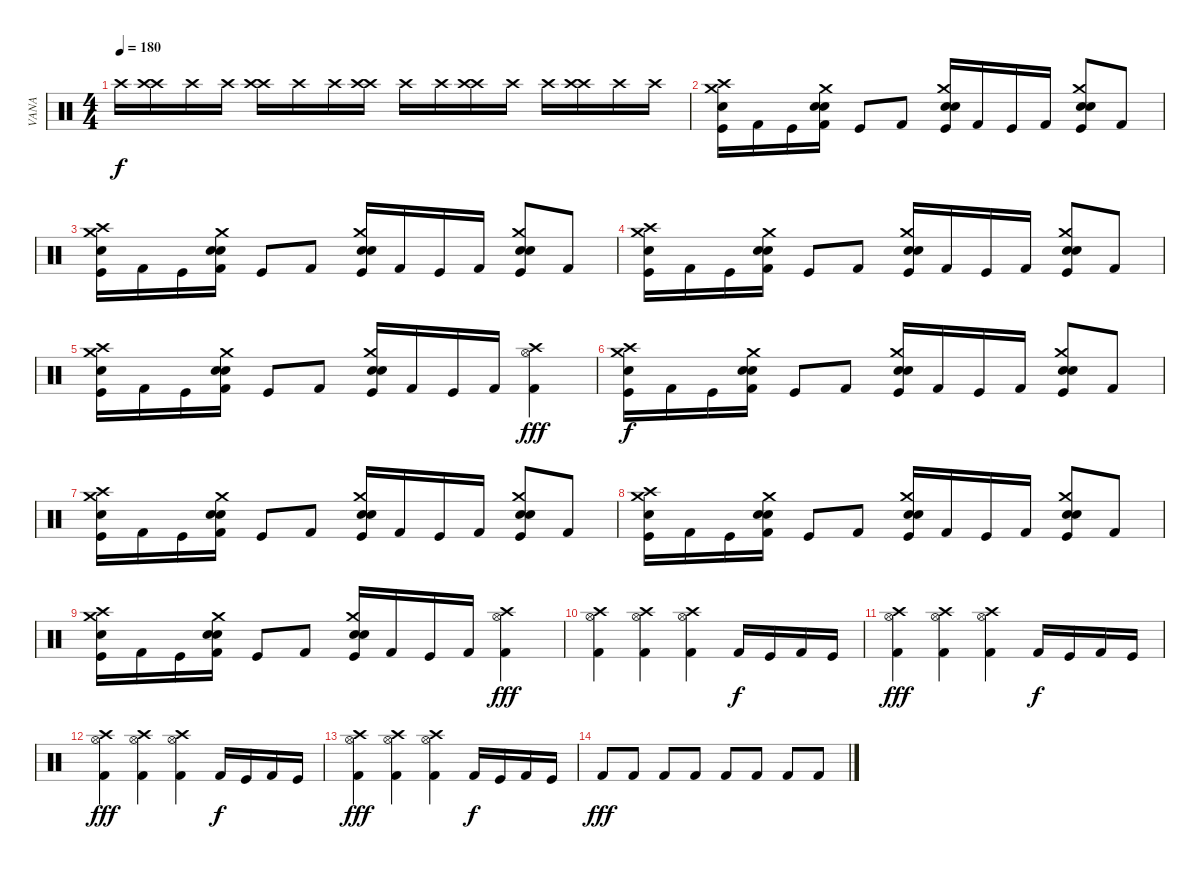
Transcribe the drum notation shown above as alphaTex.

\track ("VANA" "VANA") {instrument percussion}
\staff {score}
\articulation defaults
\ts (4 4)
\tempo 180
\clef neutral
\ks c "Crash high (hit)".16{dy f}
("Crash high (hit)" "Crash high (hit)").16 "Crash high (hit)".16 "Crash high (hit)".16 ("Crash high (hit)" "Crash high (hit)").16 "Crash high (hit)".16 "Crash high (hit)".16 ("Crash high (hit)" "Crash high (hit)").16 "Crash high (hit)".16 "Crash high (hit)".16 ("Crash high (hit)" "Crash high (hit)").16 "Crash high (hit)".16 "Crash high (hit)".16 ("Crash high (hit)" "Crash high (hit)").16 "Crash high (hit)".16 "Crash high (hit)".16 |
("Snare (hit) 2" "Crash medium (hit)" "Crash high (hit)" "Kick (hit)").16 "Kick (hit) 2".16 "Kick (hit)".16 ("Snare (hit) 2" "Crash medium (hit)" "Electric Snare (hit)" "Kick (hit) 2").16 "Kick (hit)".8 "Kick (hit) 2".8 ("Snare (hit) 2" "Crash medium (hit)" "Electric Snare (hit)" "Kick (hit)").16 "Kick (hit) 2".16 "Kick (hit)".16 "Kick (hit) 2".16 ("Snare (hit) 2" "Crash medium (hit)" "Electric Snare (hit)" "Kick (hit)").8 "Kick (hit) 2".8 |
("Snare (hit) 2" "Crash medium (hit)" "Crash high (hit)" "Kick (hit)").16 "Kick (hit) 2".16 "Kick (hit)".16 ("Snare (hit) 2" "Crash medium (hit)" "Electric Snare (hit)" "Kick (hit) 2").16 "Kick (hit)".8 "Kick (hit) 2".8 ("Snare (hit) 2" "Crash medium (hit)" "Electric Snare (hit)" "Kick (hit)").16 "Kick (hit) 2".16 "Kick (hit)".16 "Kick (hit) 2".16 ("Snare (hit) 2" "Crash medium (hit)" "Electric Snare (hit)" "Kick (hit)").8 "Kick (hit) 2".8 |
("Snare (hit) 2" "Crash medium (hit)" "Crash high (hit)" "Kick (hit)").16 "Kick (hit) 2".16 "Kick (hit)".16 ("Snare (hit) 2" "Crash medium (hit)" "Electric Snare (hit)" "Kick (hit) 2").16 "Kick (hit)".8 "Kick (hit) 2".8 ("Snare (hit) 2" "Crash medium (hit)" "Electric Snare (hit)" "Kick (hit)").16 "Kick (hit) 2".16 "Kick (hit)".16 "Kick (hit) 2".16 ("Snare (hit) 2" "Crash medium (hit)" "Electric Snare (hit)" "Kick (hit)").8 "Kick (hit) 2".8 |
("Snare (hit) 2" "Crash medium (hit)" "Crash high (hit)" "Kick (hit)").16 "Kick (hit) 2".16 "Kick (hit)".16 ("Snare (hit) 2" "Crash medium (hit)" "Electric Snare (hit)" "Kick (hit) 2").16 "Kick (hit)".8 "Kick (hit) 2".8 ("Snare (hit) 2" "Crash medium (hit)" "Electric Snare (hit)" "Kick (hit)").16 "Kick (hit) 2".16 "Kick (hit)".16 "Kick (hit) 2".16 ("Hi-Hat (open)" "Crash high (hit)" "Kick (hit) 2").4{dy fff} |
("Snare (hit) 2" "Crash medium (hit)" "Crash high (hit)" "Kick (hit)").16{dy f} "Kick (hit) 2".16 "Kick (hit)".16 ("Snare (hit) 2" "Crash medium (hit)" "Electric Snare (hit)" "Kick (hit) 2").16 "Kick (hit)".8 "Kick (hit) 2".8 ("Snare (hit) 2" "Crash medium (hit)" "Electric Snare (hit)" "Kick (hit)").16 "Kick (hit) 2".16 "Kick (hit)".16 "Kick (hit) 2".16 ("Snare (hit) 2" "Crash medium (hit)" "Electric Snare (hit)" "Kick (hit)").8 "Kick (hit) 2".8 |
("Snare (hit) 2" "Crash medium (hit)" "Crash high (hit)" "Kick (hit)").16 "Kick (hit) 2".16 "Kick (hit)".16 ("Snare (hit) 2" "Crash medium (hit)" "Electric Snare (hit)" "Kick (hit) 2").16 "Kick (hit)".8 "Kick (hit) 2".8 ("Snare (hit) 2" "Crash medium (hit)" "Electric Snare (hit)" "Kick (hit)").16 "Kick (hit) 2".16 "Kick (hit)".16 "Kick (hit) 2".16 ("Snare (hit) 2" "Crash medium (hit)" "Electric Snare (hit)" "Kick (hit)").8 "Kick (hit) 2".8 |
("Snare (hit) 2" "Crash medium (hit)" "Crash high (hit)" "Kick (hit)").16 "Kick (hit) 2".16 "Kick (hit)".16 ("Snare (hit) 2" "Crash medium (hit)" "Electric Snare (hit)" "Kick (hit) 2").16 "Kick (hit)".8 "Kick (hit) 2".8 ("Snare (hit) 2" "Crash medium (hit)" "Electric Snare (hit)" "Kick (hit)").16 "Kick (hit) 2".16 "Kick (hit)".16 "Kick (hit) 2".16 ("Snare (hit) 2" "Crash medium (hit)" "Electric Snare (hit)" "Kick (hit)").8 "Kick (hit) 2".8 |
("Snare (hit) 2" "Crash medium (hit)" "Crash high (hit)" "Kick (hit)").16 "Kick (hit) 2".16 "Kick (hit)".16 ("Snare (hit) 2" "Crash medium (hit)" "Electric Snare (hit)" "Kick (hit) 2").16 "Kick (hit)".8 "Kick (hit) 2".8 ("Snare (hit) 2" "Crash medium (hit)" "Electric Snare (hit)" "Kick (hit)").16 "Kick (hit) 2".16 "Kick (hit)".16 "Kick (hit) 2".16 ("Hi-Hat (open)" "Crash high (hit)" "Kick (hit) 2").4{dy fff} |
("Hi-Hat (open)" "Crash high (hit)" "Kick (hit) 2").4 ("Hi-Hat (open)" "Crash high (hit)" "Kick (hit) 2").4 ("Hi-Hat (open)" "Crash high (hit)" "Kick (hit) 2").4 "Kick (hit) 2".16{dy f} "Kick (hit)".16 "Kick (hit) 2".16 "Kick (hit)".16 |
("Hi-Hat (open)" "Crash high (hit)" "Kick (hit) 2").4{dy fff} ("Hi-Hat (open)" "Crash high (hit)" "Kick (hit) 2").4 ("Hi-Hat (open)" "Crash high (hit)" "Kick (hit) 2").4 "Kick (hit) 2".16{dy f} "Kick (hit)".16 "Kick (hit) 2".16 "Kick (hit)".16 |
("Hi-Hat (open)" "Crash high (hit)" "Kick (hit) 2").4{dy fff} ("Hi-Hat (open)" "Crash high (hit)" "Kick (hit) 2").4 ("Hi-Hat (open)" "Crash high (hit)" "Kick (hit) 2").4 "Kick (hit) 2".16{dy f} "Kick (hit)".16 "Kick (hit) 2".16 "Kick (hit)".16 |
("Hi-Hat (open)" "Crash high (hit)" "Kick (hit) 2").4{dy fff} ("Hi-Hat (open)" "Crash high (hit)" "Kick (hit) 2").4 ("Hi-Hat (open)" "Crash high (hit)" "Kick (hit) 2").4 "Kick (hit) 2".16{dy f} "Kick (hit)".16 "Kick (hit) 2".16 "Kick (hit)".16 |
"Kick (hit) 2".8{dy fff} "Kick (hit) 2".8 "Kick (hit) 2".8 "Kick (hit) 2".8 "Kick (hit) 2".8 "Kick (hit) 2".8 "Kick (hit) 2".8 "Kick (hit) 2".8
